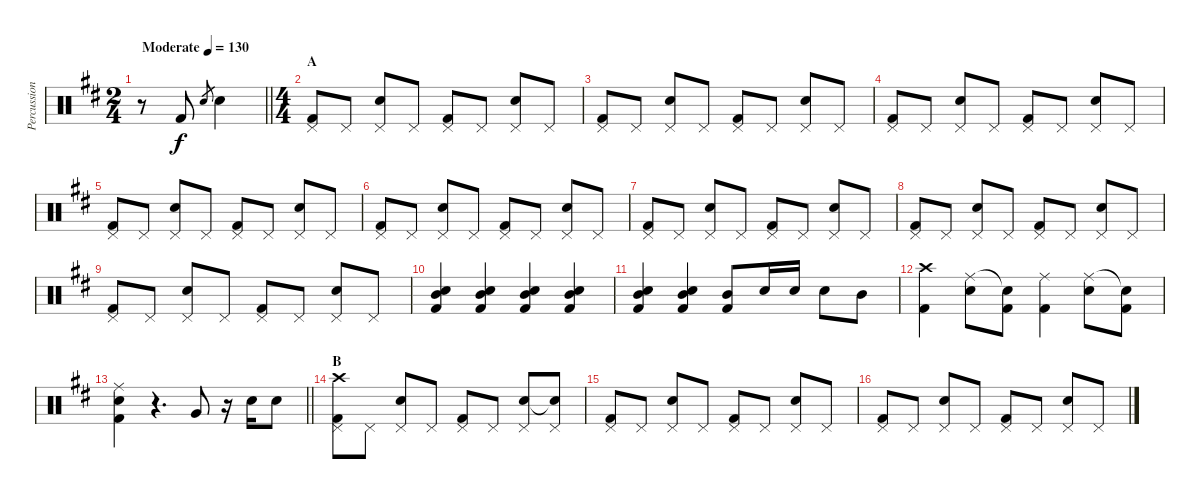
\track ("Percussion" "Percussion") {instrument percussion}
\staff {score}
\articulation defaults
\ts (2 4)
\tempo (130 "Moderate")
\clef neutral
\barLineRight lightlight
\ks d
r.8{dy f} "Kick (hit) 2".8 "Electric Snare (hit)".8{gr} "Electric Snare (hit)".4 |
\ts (4 4)
\section ("" "A")
("Pedal Hi-Hat (hit)" "Kick (hit) 2").8 "Pedal Hi-Hat (hit)".8 ("Pedal Hi-Hat (hit)" "Electric Snare (hit)").8 "Pedal Hi-Hat (hit)".8 ("Pedal Hi-Hat (hit)" "Kick (hit) 2").8 "Pedal Hi-Hat (hit)".8 ("Pedal Hi-Hat (hit)" "Electric Snare (hit)").8 "Pedal Hi-Hat (hit)".8 |
("Pedal Hi-Hat (hit)" "Kick (hit) 2").8 "Pedal Hi-Hat (hit)".8 ("Pedal Hi-Hat (hit)" "Electric Snare (hit)").8 "Pedal Hi-Hat (hit)".8 ("Pedal Hi-Hat (hit)" "Kick (hit) 2").8 "Pedal Hi-Hat (hit)".8 ("Pedal Hi-Hat (hit)" "Electric Snare (hit)").8 "Pedal Hi-Hat (hit)".8 |
("Pedal Hi-Hat (hit)" "Kick (hit) 2").8 "Pedal Hi-Hat (hit)".8 ("Pedal Hi-Hat (hit)" "Electric Snare (hit)").8 "Pedal Hi-Hat (hit)".8 ("Pedal Hi-Hat (hit)" "Kick (hit) 2").8 "Pedal Hi-Hat (hit)".8 ("Pedal Hi-Hat (hit)" "Electric Snare (hit)").8 "Pedal Hi-Hat (hit)".8 |
("Pedal Hi-Hat (hit)" "Kick (hit) 2").8 "Pedal Hi-Hat (hit)".8 ("Pedal Hi-Hat (hit)" "Electric Snare (hit)").8 "Pedal Hi-Hat (hit)".8 ("Pedal Hi-Hat (hit)" "Kick (hit) 2").8 "Pedal Hi-Hat (hit)".8 ("Pedal Hi-Hat (hit)" "Electric Snare (hit)").8 "Pedal Hi-Hat (hit)".8 |
("Pedal Hi-Hat (hit)" "Kick (hit) 2").8 "Pedal Hi-Hat (hit)".8 ("Pedal Hi-Hat (hit)" "Electric Snare (hit)").8 "Pedal Hi-Hat (hit)".8 ("Pedal Hi-Hat (hit)" "Kick (hit) 2").8 "Pedal Hi-Hat (hit)".8 ("Pedal Hi-Hat (hit)" "Electric Snare (hit)").8 "Pedal Hi-Hat (hit)".8 |
("Pedal Hi-Hat (hit)" "Kick (hit) 2").8 "Pedal Hi-Hat (hit)".8 ("Pedal Hi-Hat (hit)" "Electric Snare (hit)").8 "Pedal Hi-Hat (hit)".8 ("Pedal Hi-Hat (hit)" "Kick (hit) 2").8 "Pedal Hi-Hat (hit)".8 ("Pedal Hi-Hat (hit)" "Electric Snare (hit)").8 "Pedal Hi-Hat (hit)".8 |
("Pedal Hi-Hat (hit)" "Kick (hit) 2").8 "Pedal Hi-Hat (hit)".8 ("Pedal Hi-Hat (hit)" "Electric Snare (hit)").8 "Pedal Hi-Hat (hit)".8 ("Pedal Hi-Hat (hit)" "Kick (hit) 2").8 "Pedal Hi-Hat (hit)".8 ("Pedal Hi-Hat (hit)" "Electric Snare (hit)").8 "Pedal Hi-Hat (hit)".8 |
("Pedal Hi-Hat (hit)" "Kick (hit) 2").8 "Pedal Hi-Hat (hit)".8 ("Pedal Hi-Hat (hit)" "Electric Snare (hit)").8 "Pedal Hi-Hat (hit)".8 ("Pedal Hi-Hat (hit)" "Kick (hit) 2").8 "Pedal Hi-Hat (hit)".8 ("Pedal Hi-Hat (hit)" "Electric Snare (hit)").8 "Pedal Hi-Hat (hit)".8 |
("Mid Tom (hit)" "Electric Snare (hit)" "Kick (hit) 2").4 ("Mid Tom (hit)" "Electric Snare (hit)" "Kick (hit) 2").4 ("Mid Tom (hit)" "Electric Snare (hit)" "Kick (hit) 2").4 ("Mid Tom (hit)" "Electric Snare (hit)" "Kick (hit) 2").4 |
("Mid Tom (hit)" "Electric Snare (hit)" "Kick (hit) 2").4 ("Mid Tom (hit)" "Electric Snare (hit)" "Kick (hit) 2").4 ("Mid Tom (hit)" "Kick (hit) 2").8 "Electric Snare (hit)".16 "Electric Snare (hit)".16 "Electric Snare (hit)".8 "Mid Tom (hit)".8 |
("Crash high (hit)" "Kick (hit) 2").4 ("Ride (middle)" "Electric Snare (hit)").8 ("Snare (hit)"{t} "Kick (hit) 2").8 ("Ride (middle)" "Kick (hit) 2").4 ("Ride (middle)" "Electric Snare (hit)").8 ("Snare (hit)"{t} "Kick (hit) 2").8 |
\barLineRight lightlight
("Ride (middle)" "Electric Snare (hit)" "Kick (hit) 2").4 r.4{d} "Very Low Tom (hit)".8 r.16 "Electric Snare (hit)".16 "Electric Snare (hit)".8 |
\section ("" "B")
("Pedal Hi-Hat (hit)" "Kick (hit) 2" "Crash high (hit)").8 "Pedal Hi-Hat (hit)".8 ("Pedal Hi-Hat (hit)" "Electric Snare (hit)").8 "Pedal Hi-Hat (hit)".8 ("Pedal Hi-Hat (hit)" "Kick (hit) 2").8 "Pedal Hi-Hat (hit)".8 ("Pedal Hi-Hat (hit)" "Electric Snare (hit)").8 ("Pedal Hi-Hat (hit)" "Snare (hit)"{t}).8 |
("Pedal Hi-Hat (hit)" "Kick (hit) 2").8 "Pedal Hi-Hat (hit)".8 ("Pedal Hi-Hat (hit)" "Electric Snare (hit)").8 "Pedal Hi-Hat (hit)".8 ("Pedal Hi-Hat (hit)" "Kick (hit) 2").8 "Pedal Hi-Hat (hit)".8 ("Pedal Hi-Hat (hit)" "Electric Snare (hit)").8 "Pedal Hi-Hat (hit)".8 |
("Pedal Hi-Hat (hit)" "Kick (hit) 2").8 "Pedal Hi-Hat (hit)".8 ("Pedal Hi-Hat (hit)" "Electric Snare (hit)").8 "Pedal Hi-Hat (hit)".8 ("Pedal Hi-Hat (hit)" "Kick (hit) 2").8 "Pedal Hi-Hat (hit)".8 ("Pedal Hi-Hat (hit)" "Electric Snare (hit)").8 "Pedal Hi-Hat (hit)".8
